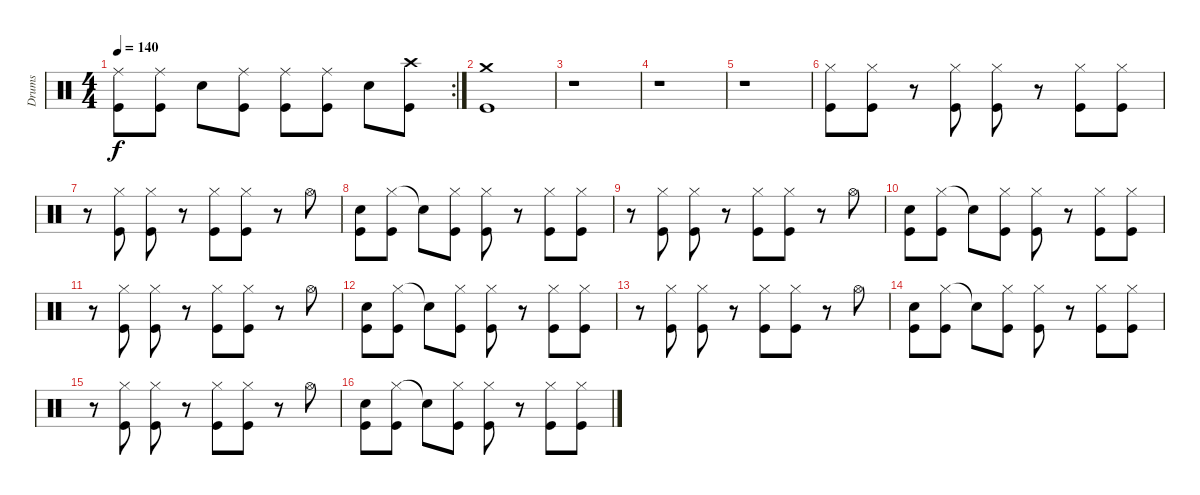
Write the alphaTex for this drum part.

\track ("Drums" "Drums") {instrument percussion}
\staff {score}
\articulation defaults
\rc 2
\ts (4 4)
\tempo 140
\clef neutral
\ks c
("Ride (middle)" "Kick (hit)").8{dy f} ("Ride (middle)" "Kick (hit)").8 "Electric Snare (hit)".8 ("Ride (middle)" "Kick (hit)").8 ("Ride (middle)" "Kick (hit)").8 ("Ride (middle)" "Kick (hit)").8 "Electric Snare (hit)".8 ("Crash high (hit)" "Kick (hit)").8 |
("Crash medium (hit)" "Kick (hit)").1 |
r.1 |
r.1 |
r.1 |
("Hi-Hat (closed)" "Kick (hit)").8 ("Hi-Hat (closed)" "Kick (hit)").8 r.8 ("Hi-Hat (closed)" "Kick (hit)").8 ("Hi-Hat (closed)" "Kick (hit)").8 r.8 ("Hi-Hat (closed)" "Kick (hit)").8 ("Hi-Hat (closed)" "Kick (hit)").8 |
r.8 ("Hi-Hat (closed)" "Kick (hit)").8 ("Hi-Hat (closed)" "Kick (hit)").8 r.8 ("Hi-Hat (closed)" "Kick (hit)").8 ("Hi-Hat (closed)" "Kick (hit)").8 r.8 "Hi-Hat (open)".8 |
("Electric Snare (hit)" "Kick (hit)").8 ("Hi-Hat (closed)" "Kick (hit)").8 "Snare (hit)"{t}.8 ("Hi-Hat (closed)" "Kick (hit)").8 ("Hi-Hat (closed)" "Kick (hit)").8 r.8 ("Hi-Hat (closed)" "Kick (hit)").8 ("Hi-Hat (closed)" "Kick (hit)").8 |
r.8 ("Hi-Hat (closed)" "Kick (hit)").8 ("Hi-Hat (closed)" "Kick (hit)").8 r.8 ("Hi-Hat (closed)" "Kick (hit)").8 ("Hi-Hat (closed)" "Kick (hit)").8 r.8 "Hi-Hat (open)".8 |
("Electric Snare (hit)" "Kick (hit)").8 ("Hi-Hat (closed)" "Kick (hit)").8 "Snare (hit)"{t}.8 ("Hi-Hat (closed)" "Kick (hit)").8 ("Hi-Hat (closed)" "Kick (hit)").8 r.8 ("Hi-Hat (closed)" "Kick (hit)").8 ("Hi-Hat (closed)" "Kick (hit)").8 |
r.8 ("Hi-Hat (closed)" "Kick (hit)").8 ("Hi-Hat (closed)" "Kick (hit)").8 r.8 ("Hi-Hat (closed)" "Kick (hit)").8 ("Hi-Hat (closed)" "Kick (hit)").8 r.8 "Hi-Hat (open)".8 |
("Electric Snare (hit)" "Kick (hit)").8 ("Hi-Hat (closed)" "Kick (hit)").8 "Snare (hit)"{t}.8 ("Hi-Hat (closed)" "Kick (hit)").8 ("Hi-Hat (closed)" "Kick (hit)").8 r.8 ("Hi-Hat (closed)" "Kick (hit)").8 ("Hi-Hat (closed)" "Kick (hit)").8 |
r.8 ("Hi-Hat (closed)" "Kick (hit)").8 ("Hi-Hat (closed)" "Kick (hit)").8 r.8 ("Hi-Hat (closed)" "Kick (hit)").8 ("Hi-Hat (closed)" "Kick (hit)").8 r.8 "Hi-Hat (open)".8 |
("Electric Snare (hit)" "Kick (hit)").8 ("Hi-Hat (closed)" "Kick (hit)").8 "Snare (hit)"{t}.8 ("Hi-Hat (closed)" "Kick (hit)").8 ("Hi-Hat (closed)" "Kick (hit)").8 r.8 ("Hi-Hat (closed)" "Kick (hit)").8 ("Hi-Hat (closed)" "Kick (hit)").8 |
r.8 ("Hi-Hat (closed)" "Kick (hit)").8 ("Hi-Hat (closed)" "Kick (hit)").8 r.8 ("Hi-Hat (closed)" "Kick (hit)").8 ("Hi-Hat (closed)" "Kick (hit)").8 r.8 "Hi-Hat (open)".8 |
("Electric Snare (hit)" "Kick (hit)").8 ("Hi-Hat (closed)" "Kick (hit)").8 "Snare (hit)"{t}.8 ("Hi-Hat (closed)" "Kick (hit)").8 ("Hi-Hat (closed)" "Kick (hit)").8 r.8 ("Hi-Hat (closed)" "Kick (hit)").8 ("Hi-Hat (closed)" "Kick (hit)").8
